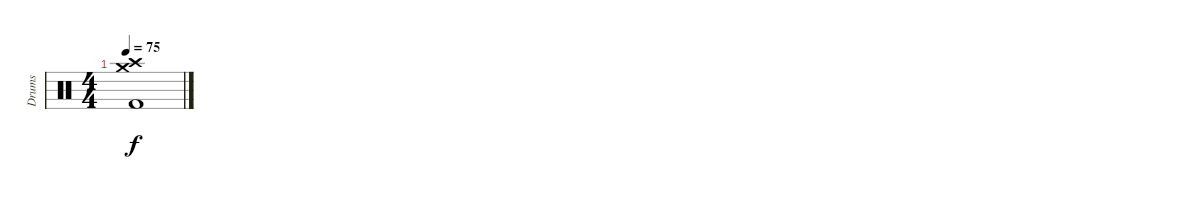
\track ("Drums" "Drums") {instrument percussion}
\staff {score}
\articulation defaults
\ts (4 4)
\tempo 75
\clef neutral
\ks c
("Kick (hit) 2" "Crash high (hit)" "Crash medium (hit)").1{dy f}
